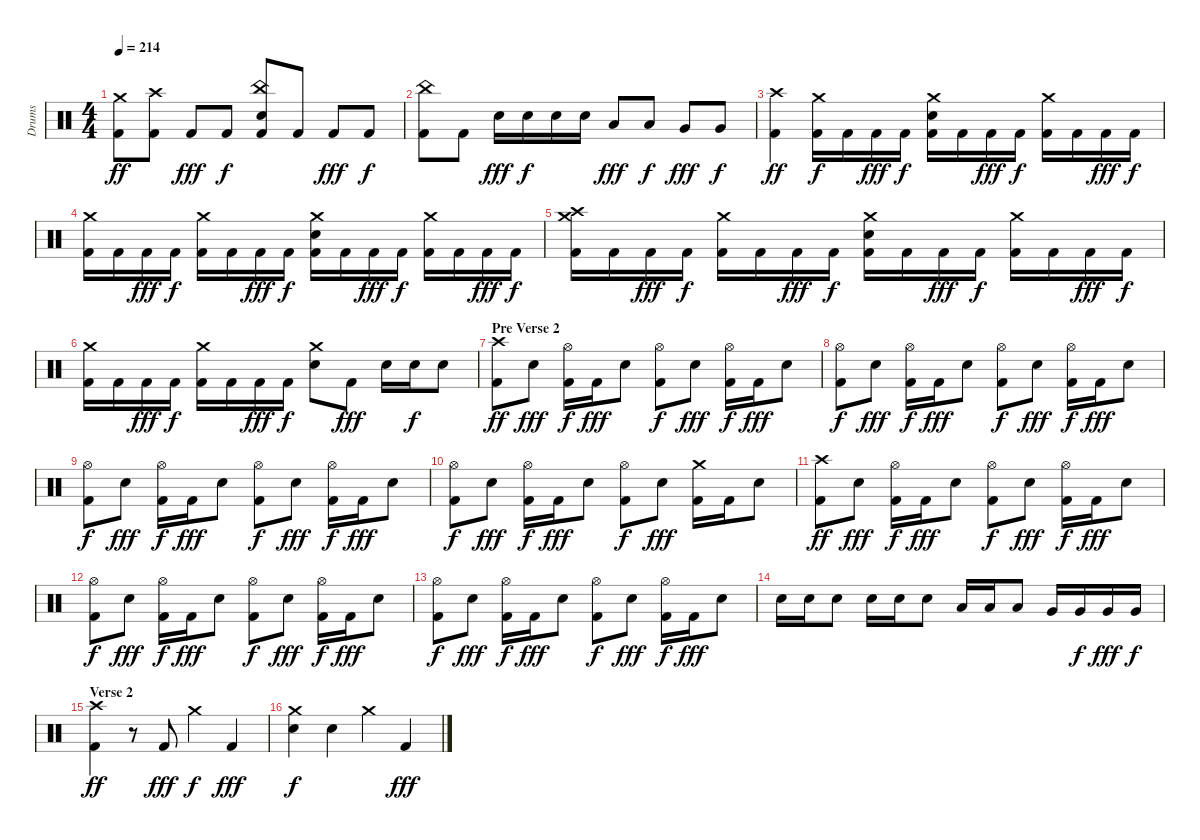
\track ("Drums" "Drums") {instrument percussion}
\staff {score}
\articulation defaults
\ts (4 4)
\tempo 214
\clef neutral
\ks c
("Crash medium (hit)" "Kick (hit) 2").8{dy ff} ("Crash high (hit)" "Kick (hit) 2").8 "Kick (hit) 2".8{dy fff} "Kick (hit) 2".8{dy f} ("China (hit)" "Snare (hit) 2" "Kick (hit) 2").8 "Kick (hit) 2".8 "Kick (hit) 2".8{dy fff} "Kick (hit) 2".8{dy f} |
("China (hit)" "Kick (hit) 2").8 "Kick (hit) 2".8 "Snare (hit) 2".16{dy fff} "Snare (hit) 2".16{dy f} "Snare (hit) 2".16 "Snare (hit) 2".16 "Low Tom (hit)".8{dy fff} "Low Tom (hit)".8{dy f} "Very Low Tom (hit)".8{dy fff} "Very Low Tom (hit)".8{dy f} |
("Crash high (hit)" "Kick (hit) 2").4{dy ff} ("Crash medium (hit)" "Kick (hit) 2").16{dy f} "Kick (hit) 2".16 "Kick (hit) 2".16{dy fff} "Kick (hit) 2".16{dy f} ("Crash medium (hit)" "Snare (hit) 2" "Kick (hit) 2").16 "Kick (hit) 2".16 "Kick (hit) 2".16{dy fff} "Kick (hit) 2".16{dy f} ("Crash medium (hit)" "Kick (hit) 2").16 "Kick (hit) 2".16 "Kick (hit) 2".16{dy fff} "Kick (hit) 2".16{dy f} |
("Crash medium (hit)" "Kick (hit) 2").16 "Kick (hit) 2".16 "Kick (hit) 2".16{dy fff} "Kick (hit) 2".16{dy f} ("Crash medium (hit)" "Kick (hit) 2").16 "Kick (hit) 2".16 "Kick (hit) 2".16{dy fff} "Kick (hit) 2".16{dy f} ("Crash medium (hit)" "Snare (hit) 2" "Kick (hit) 2").16 "Kick (hit) 2".16 "Kick (hit) 2".16{dy fff} "Kick (hit) 2".16{dy f} ("Crash medium (hit)" "Kick (hit) 2").16 "Kick (hit) 2".16 "Kick (hit) 2".16{dy fff} "Kick (hit) 2".16{dy f} |
("Crash medium (hit)" "Crash high (hit)" "Kick (hit) 2").16 "Kick (hit) 2".16 "Kick (hit) 2".16{dy fff} "Kick (hit) 2".16{dy f} ("Crash medium (hit)" "Kick (hit) 2").16 "Kick (hit) 2".16 "Kick (hit) 2".16{dy fff} "Kick (hit) 2".16{dy f} ("Crash medium (hit)" "Snare (hit) 2" "Kick (hit) 2").16 "Kick (hit) 2".16 "Kick (hit) 2".16{dy fff} "Kick (hit) 2".16{dy f} ("Crash medium (hit)" "Kick (hit) 2").16 "Kick (hit) 2".16 "Kick (hit) 2".16{dy fff} "Kick (hit) 2".16{dy f} |
("Crash medium (hit)" "Kick (hit) 2").16 "Kick (hit) 2".16 "Kick (hit) 2".16{dy fff} "Kick (hit) 2".16{dy f} ("Crash medium (hit)" "Kick (hit) 2").16 "Kick (hit) 2".16 "Kick (hit) 2".16{dy fff} "Kick (hit) 2".16{dy f} ("Crash medium (hit)" "Snare (hit) 2").8 "Kick (hit) 2".8{dy fff} "Snare (hit) 2".16 "Snare (hit) 2".16{dy f} "Snare (hit) 2".8 |
\section ("" "Pre Verse 2")
("Crash high (hit)" "Kick (hit) 2").8{dy ff} "Snare (hit) 2".8{dy fff} ("Hi-Hat (open)" "Kick (hit) 2").16{dy f} "Kick (hit) 2".16{dy fff} "Snare (hit) 2".8 ("Hi-Hat (open)" "Kick (hit) 2").8{dy f} "Snare (hit) 2".8{dy fff} ("Hi-Hat (open)" "Kick (hit) 2").16{dy f} "Kick (hit) 2".16{dy fff} "Snare (hit) 2".8 |
("Hi-Hat (open)" "Kick (hit) 2").8{dy f} "Snare (hit) 2".8{dy fff} ("Hi-Hat (open)" "Kick (hit) 2").16{dy f} "Kick (hit) 2".16{dy fff} "Snare (hit) 2".8 ("Hi-Hat (open)" "Kick (hit) 2").8{dy f} "Snare (hit) 2".8{dy fff} ("Hi-Hat (open)" "Kick (hit) 2").16{dy f} "Kick (hit) 2".16{dy fff} "Snare (hit) 2".8 |
("Hi-Hat (open)" "Kick (hit) 2").8{dy f} "Snare (hit) 2".8{dy fff} ("Hi-Hat (open)" "Kick (hit) 2").16{dy f} "Kick (hit) 2".16{dy fff} "Snare (hit) 2".8 ("Hi-Hat (open)" "Kick (hit) 2").8{dy f} "Snare (hit) 2".8{dy fff} ("Hi-Hat (open)" "Kick (hit) 2").16{dy f} "Kick (hit) 2".16{dy fff} "Snare (hit) 2".8 |
("Hi-Hat (open)" "Kick (hit) 2").8{dy f} "Snare (hit) 2".8{dy fff} ("Hi-Hat (open)" "Kick (hit) 2").16{dy f} "Kick (hit) 2".16{dy fff} "Snare (hit) 2".8 ("Hi-Hat (open)" "Kick (hit) 2").8{dy f} "Snare (hit) 2".8{dy fff} ("Crash medium (hit)" "Kick (hit) 2").16 "Kick (hit) 2".16 "Snare (hit) 2".8 |
("Crash high (hit)" "Kick (hit) 2").8{dy ff} "Snare (hit) 2".8{dy fff} ("Hi-Hat (open)" "Kick (hit) 2").16{dy f} "Kick (hit) 2".16{dy fff} "Snare (hit) 2".8 ("Hi-Hat (open)" "Kick (hit) 2").8{dy f} "Snare (hit) 2".8{dy fff} ("Hi-Hat (open)" "Kick (hit) 2").16{dy f} "Kick (hit) 2".16{dy fff} "Snare (hit) 2".8 |
("Hi-Hat (open)" "Kick (hit) 2").8{dy f} "Snare (hit) 2".8{dy fff} ("Hi-Hat (open)" "Kick (hit) 2").16{dy f} "Kick (hit) 2".16{dy fff} "Snare (hit) 2".8 ("Hi-Hat (open)" "Kick (hit) 2").8{dy f} "Snare (hit) 2".8{dy fff} ("Hi-Hat (open)" "Kick (hit) 2").16{dy f} "Kick (hit) 2".16{dy fff} "Snare (hit) 2".8 |
("Hi-Hat (open)" "Kick (hit) 2").8{dy f} "Snare (hit) 2".8{dy fff} ("Hi-Hat (open)" "Kick (hit) 2").16{dy f} "Kick (hit) 2".16{dy fff} "Snare (hit) 2".8 ("Hi-Hat (open)" "Kick (hit) 2").8{dy f} "Snare (hit) 2".8{dy fff} ("Hi-Hat (open)" "Kick (hit) 2").16{dy f} "Kick (hit) 2".16{dy fff} "Snare (hit) 2".8 |
"Snare (hit) 2".16 "Snare (hit) 2".16 "Snare (hit) 2".8 "Snare (hit) 2".16 "Snare (hit) 2".16 "Snare (hit) 2".8 "Low Tom (hit)".16 "Low Tom (hit)".16 "Low Tom (hit)".8 "Very Low Tom (hit)".16 "Very Low Tom (hit)".16{dy f} "Very Low Tom (hit)".16{dy fff} "Very Low Tom (hit)".16{dy f} |
\section ("" "Verse 2")
("Crash high (hit)" "Kick (hit) 2").4{dy ff} r.8 "Kick (hit) 2".8{dy fff} "Crash medium (hit)".4{dy f} "Kick (hit) 2".4{dy fff} |
("Crash medium (hit)" "Snare (hit) 2").4{dy f} "Snare (hit) 2".4 "Crash medium (hit)".4 "Kick (hit) 2".4{dy fff}
